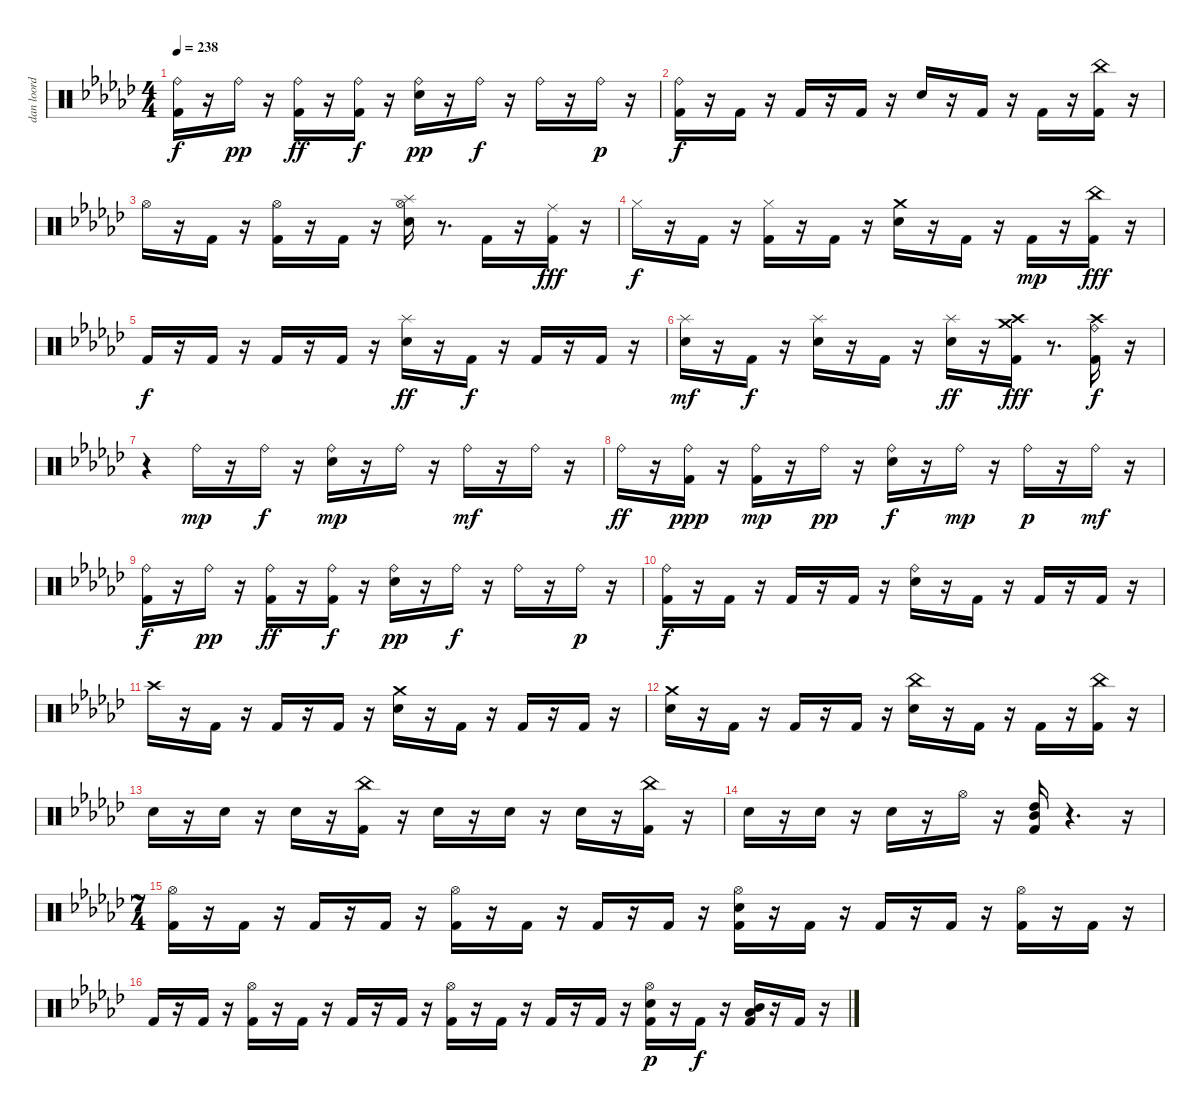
\track ("dan loord foord" "dan loord ") {instrument percussion}
\staff {score}
\articulation defaults
\ts (4 4)
\tempo 238
\clef neutral
\ks gb
("Kick (hit) 2" "Ride (bell)").16{dy f} r.16 "Ride (bell)".16{dy pp} r.16 ("Kick (hit) 2" "Ride (bell)").16{dy ff} r.16 ("Kick (hit) 2" "Ride (bell)").16{dy f} r.16 ("Snare (hit) 2" "Ride (bell)").16{dy pp} r.16 "Ride (bell)".16{dy f} r.16 "Ride (bell)".16 r.16 "Ride (bell)".16{dy p} r.16 |
("Kick (hit) 2" "Ride (bell)").16{dy f} r.16 "Kick (hit) 2".16 r.16 "Kick (hit) 2".16 r.16 "Kick (hit) 2".16 r.16 "Snare (hit) 2".16 r.16 "Kick (hit) 2".16 r.16 "Kick (hit) 2".16 r.16 ("Kick (hit) 2" "China (hit)").16 r.16 |
"Hi-Hat (open)".16 r.16 "Kick (hit) 2".16 r.16 ("Kick (hit) 2" "Hi-Hat (open)").16 r.16 "Kick (hit) 2".16 r.16 ("Snare (hit) 2" "Hi-Hat (open)" "Splash (hit)").16 r.8{d} "Kick (hit) 2".16 r.16 ("Kick (hit) 2" "Ride (middle)").16{dy fff} r.16 |
"Hi-Hat (closed)".16{dy f} r.16 "Kick (hit) 2".16 r.16 ("Kick (hit) 2" "Hi-Hat (closed)").16 r.16 "Kick (hit) 2".16 r.16 ("Snare (hit) 2" "Crash medium (hit)").16 r.16 "Kick (hit) 2".16 r.16 "Kick (hit) 2".16{dy mp} r.16 ("Kick (hit) 2" "China (hit)").16{dy fff} r.16 |
"Kick (hit) 2".16{dy f} r.16 "Kick (hit) 2".16 r.16 "Kick (hit) 2".16 r.16 "Kick (hit) 2".16 r.16 ("Snare (hit) 2" "Splash (hit)").16{dy ff} r.16 "Kick (hit) 2".16{dy f} r.16 "Kick (hit) 2".16 r.16 "Kick (hit) 2".16 r.16 |
("Snare (hit) 2" "Splash (hit)").16{dy mf} r.16 "Kick (hit) 2".16{dy f} r.16 ("Snare (hit) 2" "Splash (hit)").16 r.16 "Kick (hit) 2".16 r.16 ("Snare (hit) 2" "Splash (hit)").16{dy ff} r.16 ("Kick (hit) 2" "Crash high (hit)" "Crash medium (hit)").16{dy fff} r.8{d} ("Kick (hit) 2" "Crash high (hit)" "Ride (bell)").16{dy f} r.16 |
r.4 "Ride (bell)".16{dy mp} r.16 "Ride (bell)".16{dy f} r.16 ("Snare (hit) 2" "Ride (bell)").16{dy mp} r.16 "Ride (bell)".16 r.16 "Ride (bell)".16{dy mf} r.16 "Ride (bell)".16 r.16 |
"Ride (bell)".16{dy ff} r.16 ("Kick (hit) 2" "Ride (bell)").16{dy ppp} r.16 ("Kick (hit) 2" "Ride (bell)").16{dy mp} r.16 "Ride (bell)".16{dy pp} r.16 ("Snare (hit) 2" "Ride (bell)").16{dy f} r.16 "Ride (bell)".16{dy mp} r.16 "Ride (bell)".16{dy p} r.16 "Ride (bell)".16{dy mf} r.16 |
("Kick (hit) 2" "Ride (bell)").16{dy f} r.16 "Ride (bell)".16{dy pp} r.16 ("Kick (hit) 2" "Ride (bell)").16{dy ff} r.16 ("Kick (hit) 2" "Ride (bell)").16{dy f} r.16 ("Snare (hit) 2" "Ride (bell)").16{dy pp} r.16 "Ride (bell)".16{dy f} r.16 "Ride (bell)".16 r.16 "Ride (bell)".16{dy p} r.16 |
("Kick (hit) 2" "Ride (bell)").16{dy f} r.16 "Kick (hit) 2".16 r.16 "Kick (hit) 2".16 r.16 "Kick (hit) 2".16 r.16 ("Snare (hit) 2" "Ride (bell)").16 r.16 "Kick (hit) 2".16 r.16 "Kick (hit) 2".16 r.16 "Kick (hit) 2".16 r.16 |
"Crash high (hit)".16 r.16 "Kick (hit) 2".16 r.16 "Kick (hit) 2".16 r.16 "Kick (hit) 2".16 r.16 ("Snare (hit) 2" "Crash medium (hit)").16 r.16 "Kick (hit) 2".16 r.16 "Kick (hit) 2".16 r.16 "Kick (hit) 2".16 r.16 |
("Snare (hit) 2" "Crash medium (hit)").16 r.16 "Kick (hit) 2".16 r.16 "Kick (hit) 2".16 r.16 "Kick (hit) 2".16 r.16 ("Snare (hit) 2" "China (hit)").16 r.16 "Kick (hit) 2".16 r.16 "Kick (hit) 2".16 r.16 ("Kick (hit) 2" "China (hit)").16 r.16 |
"Snare (hit) 2".16 r.16 "Snare (hit) 2".16 r.16 "Snare (hit) 2".16 r.16 ("Kick (hit) 2" "China (hit)").16 r.16 "Snare (hit) 2".16 r.16 "Snare (hit) 2".16 r.16 "Snare (hit) 2".16 r.16 ("Kick (hit) 2" "China (hit)").16 r.16 |
"Snare (hit) 2".16 r.16 "Snare (hit) 2".16 r.16 "Snare (hit) 2".16 r.16 "Hi-Hat (open)".16 r.16 ("Kick (hit) 2" "Mid Tom (hit)" "High Tom (hit)").16 r.4{d} r.16 |
\ts (7 4)
("Kick (hit) 2" "Hi-Hat (open)").16 r.16 "Kick (hit) 2".16 r.16 "Kick (hit) 2".16 r.16 "Kick (hit) 2".16 r.16 ("Kick (hit) 2" "Hi-Hat (open)").16 r.16 "Kick (hit) 2".16 r.16 "Kick (hit) 2".16 r.16 "Kick (hit) 2".16 r.16 ("Kick (hit) 2" "Snare (hit) 2" "Hi-Hat (open)").16 r.16 "Kick (hit) 2".16 r.16 "Kick (hit) 2".16 r.16 "Kick (hit) 2".16 r.16 ("Kick (hit) 2" "Hi-Hat (open)").16 r.16 "Kick (hit) 2".16 r.16 |
"Kick (hit) 2".16 r.16 "Kick (hit) 2".16 r.16 ("Kick (hit) 2" "Hi-Hat (open)").16 r.16 "Kick (hit) 2".16 r.16 "Kick (hit) 2".16 r.16 "Kick (hit) 2".16 r.16 ("Kick (hit) 2" "Hi-Hat (open)").16 r.16 "Kick (hit) 2".16 r.16 "Kick (hit) 2".16 r.16 "Kick (hit) 2".16 r.16 ("Kick (hit) 2" "Snare (hit) 2" "Hi-Hat (open)").16{dy p} r.16 "Kick (hit) 2".16{dy f} r.16 ("Kick (hit) 2" "Low Floor Tom (hit)" "Mid Tom (hit)").16 r.16 "Kick (hit) 2".16 r.16
